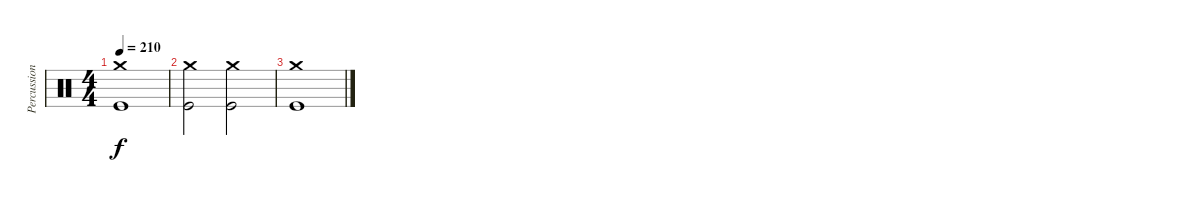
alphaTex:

\track ("Percussion" "Percussion") {instrument percussion}
\staff {score}
\articulation defaults
\ts (4 4)
\tempo 210
\clef neutral
\ks c
("Crash medium (hit)" "Kick (hit)").1{dy f} |
("Crash medium (hit)" "Kick (hit)").2 ("Crash medium (hit)" "Kick (hit)").2 |
("Kick (hit)" "Crash medium (hit)").1
